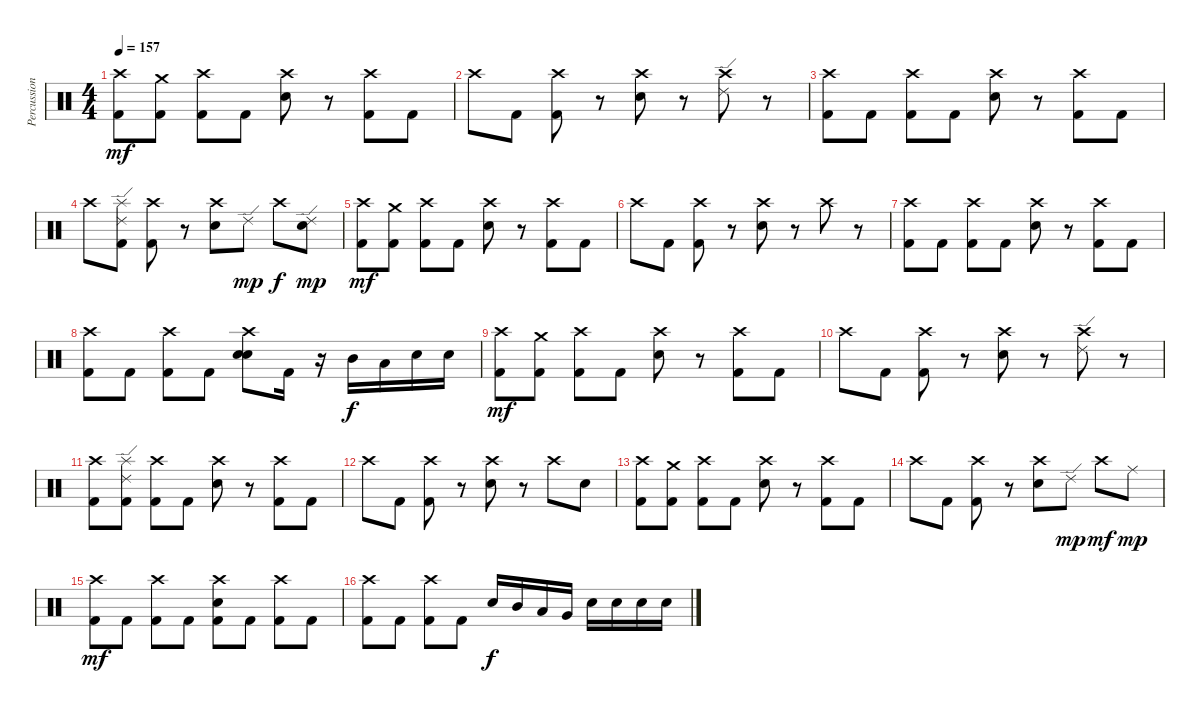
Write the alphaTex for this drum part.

\track ("Percussions" "Percussion") {instrument percussion}
\staff {score}
\articulation defaults
\ts (4 4)
\tempo 157
\clef neutral
\ks c
("Crash high (hit)" "Kick (hit) 2").8{dy mf} ("Crash medium (hit)" "Kick (hit) 2").8 ("Crash high (hit)" "Kick (hit) 2").8 "Kick (hit) 2".8 ("Crash high (hit)" "Electric Snare (hit)").8 r.8 ("Crash high (hit)" "Kick (hit) 2").8 "Kick (hit) 2".8 |
"Crash high (hit)".8 "Kick (hit) 2".8 ("Crash high (hit)" "Kick (hit) 2").8 r.8 ("Crash high (hit)" "Electric Snare (hit)").8 r.8 ("Ride (edge) 2" "Crash high (hit)").8 r.8 |
("Crash high (hit)" "Kick (hit) 2").8 "Kick (hit) 2".8 ("Crash high (hit)" "Kick (hit) 2").8 "Kick (hit) 2".8 ("Crash high (hit)" "Electric Snare (hit)").8 r.8 ("Crash high (hit)" "Kick (hit) 2").8 "Kick (hit) 2".8 |
"Crash high (hit)".8 ("Ride (edge) 2" "Splash (hit)" "Kick (hit) 2").8 ("Crash high (hit)" "Kick (hit) 2").8 r.8 ("Crash high (hit)" "Electric Snare (hit)").8 "Ride (edge) 2".8{dy mp} "Crash high (hit)".8{dy f} ("Ride (edge) 2" "Electric Snare (hit)").8{dy mp} |
("Crash high (hit)" "Kick (hit) 2").8{dy mf} ("Crash medium (hit)" "Kick (hit) 2").8 ("Crash high (hit)" "Kick (hit) 2").8 "Kick (hit) 2".8 ("Crash high (hit)" "Electric Snare (hit)").8 r.8 ("Crash high (hit)" "Kick (hit) 2").8 "Kick (hit) 2".8 |
"Crash high (hit)".8 "Kick (hit) 2".8 ("Crash high (hit)" "Kick (hit) 2").8 r.8 ("Crash high (hit)" "Electric Snare (hit)").8 r.8 "Crash high (hit)".8 r.8 |
("Crash high (hit)" "Kick (hit) 2").8 "Kick (hit) 2".8 ("Crash high (hit)" "Kick (hit) 2").8 "Kick (hit) 2".8 ("Crash high (hit)" "Electric Snare (hit)").8 r.8 ("Crash high (hit)" "Kick (hit) 2").8 "Kick (hit) 2".8 |
("Crash high (hit)" "Kick (hit) 2").8 "Kick (hit) 2".8 ("Crash high (hit)" "Kick (hit) 2").8 "Kick (hit) 2".8 ("Crash high (hit)" "Snare (hit) 2" "Electric Snare (hit)").8 "Kick (hit) 2".16 r.16 "Mid Tom (hit)".16{dy f} "Low Tom (hit)".16 "Electric Snare (hit)".16 "Electric Snare (hit)".16 |
("Crash high (hit)" "Kick (hit) 2").8{dy mf} ("Crash medium (hit)" "Kick (hit) 2").8 ("Crash high (hit)" "Kick (hit) 2").8 "Kick (hit) 2".8 ("Crash high (hit)" "Electric Snare (hit)").8 r.8 ("Crash high (hit)" "Kick (hit) 2").8 "Kick (hit) 2".8 |
"Crash high (hit)".8 "Kick (hit) 2".8 ("Crash high (hit)" "Kick (hit) 2").8 r.8 ("Crash high (hit)" "Electric Snare (hit)").8 r.8 ("Ride (edge) 2" "Crash high (hit)").8 r.8 |
("Crash high (hit)" "Kick (hit) 2").8 ("Ride (edge) 2" "Splash (hit)" "Kick (hit) 2").8 ("Crash high (hit)" "Kick (hit) 2").8 "Kick (hit) 2".8 ("Crash high (hit)" "Electric Snare (hit)").8 r.8 ("Crash high (hit)" "Kick (hit) 2").8 "Kick (hit) 2".8 |
"Crash high (hit)".8 "Kick (hit) 2".8 ("Crash high (hit)" "Kick (hit) 2").8 r.8 ("Crash high (hit)" "Electric Snare (hit)").8 r.8 "Crash high (hit)".8 "Electric Snare (hit)".8 |
("Crash high (hit)" "Kick (hit) 2").8 ("Crash medium (hit)" "Kick (hit) 2").8 ("Crash high (hit)" "Kick (hit) 2").8 "Kick (hit) 2".8 ("Crash high (hit)" "Electric Snare (hit)").8 r.8 ("Crash high (hit)" "Kick (hit) 2").8 "Kick (hit) 2".8 |
"Crash high (hit)".8 "Kick (hit) 2".8 ("Crash high (hit)" "Kick (hit) 2").8 r.8 ("Crash high (hit)" "Electric Snare (hit)").8 "Ride (edge) 2".8{dy mp} "Crash high (hit)".8{dy mf} "Ride (middle)".8{dy mp} |
("Crash high (hit)" "Kick (hit) 2").8{dy mf} "Kick (hit) 2".8 ("Crash high (hit)" "Kick (hit) 2").8 "Kick (hit) 2".8 ("Crash high (hit)" "Electric Snare (hit)" "Kick (hit) 2").8 "Kick (hit) 2".8 ("Crash high (hit)" "Kick (hit) 2").8 "Kick (hit) 2".8 |
("Crash high (hit)" "Kick (hit) 2").8 "Kick (hit) 2".8 ("Crash high (hit)" "Kick (hit) 2").8 "Kick (hit) 2".8 "Electric Snare (hit)".16{dy f} "Mid Tom (hit)".16 "Low Tom (hit)".16 "Very Low Tom (hit)".16 "Electric Snare (hit)".16 "Electric Snare (hit)".16 "Electric Snare (hit)".16 "Electric Snare (hit)".16
